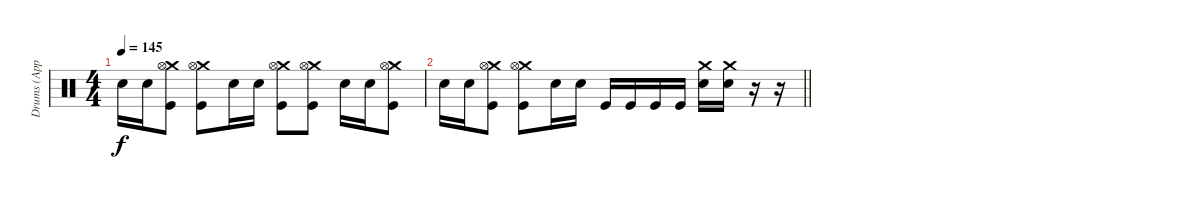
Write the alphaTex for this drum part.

\track ("Drums (Approx.)" "Drums (App") {instrument percussion}
\staff {score}
\articulation defaults
\ts (4 4)
\tempo 145
\clef neutral
\ks c "Electric Snare (hit)".16{dy f} "Electric Snare (hit)".16
("Crash medium (hit)" "Hi-Hat (open)" "Kick (hit)").8 ("Crash medium (hit)" "Hi-Hat (open)" "Kick (hit)").8 "Electric Snare (hit)".16 "Electric Snare (hit)".16 ("Crash medium (hit)" "Hi-Hat (open)" "Kick (hit)").8 ("Crash medium (hit)" "Hi-Hat (open)" "Kick (hit)").8 "Electric Snare (hit)".16 "Electric Snare (hit)".16 ("Crash medium (hit)" "Hi-Hat (open)" "Kick (hit)").8 |
\barLineRight lightlight "Electric Snare (hit)".16 "Electric Snare (hit)".16
("Crash medium (hit)" "Hi-Hat (open)" "Kick (hit)").8 ("Crash medium (hit)" "Hi-Hat (open)" "Kick (hit)").8 "Electric Snare (hit)".16 "Electric Snare (hit)".16 "Kick (hit)".16 "Kick (hit)".16 "Kick (hit)".16 "Kick (hit)".16 ("Crash medium (hit)" "Electric Snare (hit)").16 ("Crash medium (hit)" "Electric Snare (hit)").16 r.16 r.16
